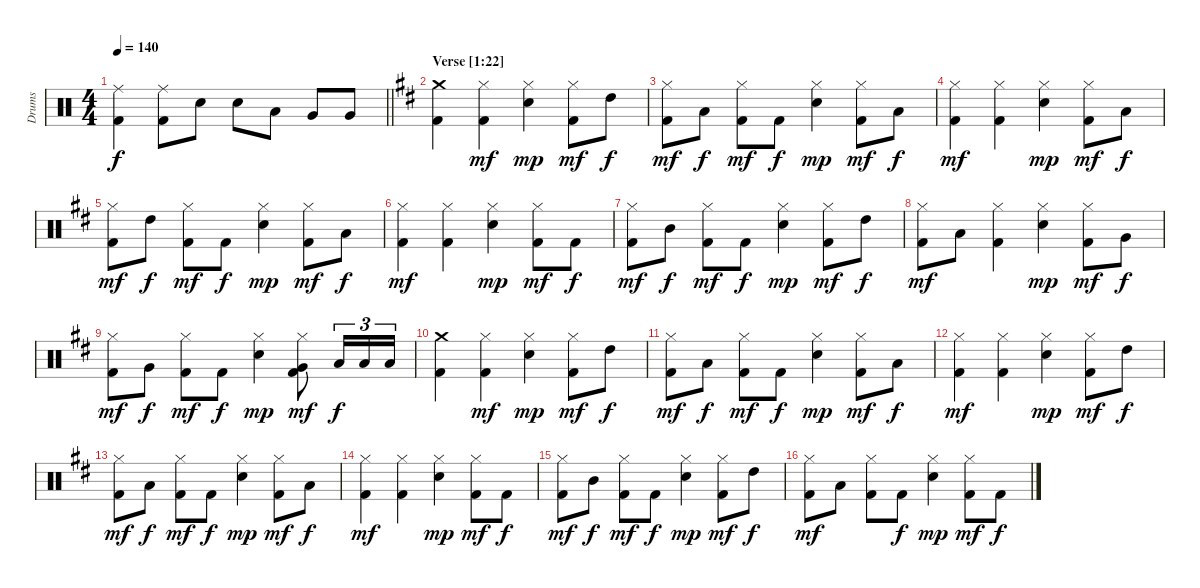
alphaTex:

\track ("Drums" "Drums") {instrument percussion}
\staff {score}
\articulation defaults
\ts (4 4)
\tempo 140
\clef neutral
\barLineRight lightlight
\ks aminor
("Ride (middle)" "Kick (hit) 2").4{dy f} ("Ride (middle)" "Kick (hit) 2").8 "Snare (hit) 2".8 "Snare (hit) 2".8 "Low Tom (hit)".8 "Very Low Tom (hit)".8 "Very Low Tom (hit)".8 |
\section ("" "Verse [1:22]")
\ks bminor
("Crash medium (hit)" "Kick (hit) 2").4 ("Hi-Hat (closed)" "Kick (hit) 2").4{dy mf} ("Hi-Hat (closed)" "Snare (hit) 2").4{dy mp} ("Hi-Hat (closed)" "Kick (hit) 2").8{dy mf} "High Tom (hit)".8{dy f} |
("Hi-Hat (closed)" "Kick (hit) 2").8{dy mf} "Low Tom (hit)".8{dy f} ("Hi-Hat (closed)" "Kick (hit) 2").8{dy mf} "Kick (hit) 2".8{dy f} ("Hi-Hat (closed)" "Snare (hit) 2").4{dy mp} ("Hi-Hat (closed)" "Kick (hit) 2").8{dy mf} "Low Floor Tom (hit)".8{dy f} |
("Hi-Hat (closed)" "Kick (hit) 2").4{dy mf} ("Hi-Hat (closed)" "Kick (hit) 2").4 ("Hi-Hat (closed)" "Snare (hit) 2").4{dy mp} ("Hi-Hat (closed)" "Kick (hit) 2").8{dy mf} "Low Tom (hit)".8{dy f} |
("Hi-Hat (closed)" "Kick (hit) 2").8{dy mf} "High Tom (hit)".8{dy f} ("Hi-Hat (closed)" "Kick (hit) 2").8{dy mf} "Kick (hit) 2".8{dy f} ("Hi-Hat (closed)" "Snare (hit) 2").4{dy mp} ("Hi-Hat (closed)" "Kick (hit) 2").8{dy mf} "Low Floor Tom (hit)".8{dy f} |
("Hi-Hat (closed)" "Kick (hit) 2").4{dy mf} ("Hi-Hat (closed)" "Kick (hit) 2").4 ("Hi-Hat (closed)" "Snare (hit) 2").4{dy mp} ("Hi-Hat (closed)" "Kick (hit) 2").8{dy mf} "Kick (hit) 2".8{dy f} |
("Hi-Hat (closed)" "Kick (hit) 2").8{dy mf} "Mid Tom (hit)".8{dy f} ("Hi-Hat (closed)" "Kick (hit) 2").8{dy mf} "Kick (hit) 2".8{dy f} ("Hi-Hat (closed)" "Snare (hit) 2").4{dy mp} ("Hi-Hat (closed)" "Kick (hit) 2").8{dy mf} "High Tom (hit)".8{dy f} |
("Hi-Hat (closed)" "Kick (hit) 2").8{dy mf} "Low Tom (hit)".8 ("Hi-Hat (closed)" "Kick (hit) 2").4 ("Hi-Hat (closed)" "Snare (hit) 2").4{dy mp} ("Hi-Hat (closed)" "Kick (hit) 2").8{dy mf} "Very Low Tom (hit)".8{dy f} |
("Hi-Hat (closed)" "Kick (hit) 2").8{dy mf} "Very Low Tom (hit)".8{dy f} ("Hi-Hat (closed)" "Kick (hit) 2").8{dy mf} "Kick (hit) 2".8{dy f} ("Hi-Hat (closed)" "Snare (hit) 2").4{dy mp} ("Hi-Hat (closed)" "Very Low Tom (hit)" "Kick (hit) 2").8{dy mf} "Low Floor Tom (hit)".16{tu (3 2) dy f} "Low Floor Tom (hit)".16{tu (3 2)} "Low Floor Tom (hit)".16{tu (3 2)} |
("Crash medium (hit)" "Kick (hit) 2").4 ("Hi-Hat (closed)" "Kick (hit) 2").4{dy mf} ("Hi-Hat (closed)" "Snare (hit) 2").4{dy mp} ("Hi-Hat (closed)" "Kick (hit) 2").8{dy mf} "High Tom (hit)".8{dy f} |
("Hi-Hat (closed)" "Kick (hit) 2").8{dy mf} "Low Tom (hit)".8{dy f} ("Hi-Hat (closed)" "Kick (hit) 2").8{dy mf} "Kick (hit) 2".8{dy f} ("Hi-Hat (closed)" "Snare (hit) 2").4{dy mp} ("Hi-Hat (closed)" "Kick (hit) 2").8{dy mf} "Low Floor Tom (hit)".8{dy f} |
("Hi-Hat (closed)" "Kick (hit) 2").4{dy mf} ("Hi-Hat (closed)" "Kick (hit) 2").4 ("Hi-Hat (closed)" "Snare (hit) 2").4{dy mp} ("Hi-Hat (closed)" "Kick (hit) 2").8{dy mf} "High Tom (hit)".8{dy f} |
("Hi-Hat (closed)" "Kick (hit) 2").8{dy mf} "Low Tom (hit)".8{dy f} ("Hi-Hat (closed)" "Kick (hit) 2").8{dy mf} "Kick (hit) 2".8{dy f} ("Hi-Hat (closed)" "Snare (hit) 2").4{dy mp} ("Hi-Hat (closed)" "Kick (hit) 2").8{dy mf} "Low Floor Tom (hit)".8{dy f} |
("Hi-Hat (closed)" "Kick (hit) 2").4{dy mf} ("Hi-Hat (closed)" "Kick (hit) 2").4 ("Hi-Hat (closed)" "Snare (hit) 2").4{dy mp} ("Hi-Hat (closed)" "Kick (hit) 2").8{dy mf} "Kick (hit) 2".8{dy f} |
("Hi-Hat (closed)" "Kick (hit) 2").8{dy mf} "Mid Tom (hit)".8{dy f} ("Hi-Hat (closed)" "Kick (hit) 2").8{dy mf} "Kick (hit) 2".8{dy f} ("Hi-Hat (closed)" "Snare (hit) 2").4{dy mp} ("Hi-Hat (closed)" "Kick (hit) 2").8{dy mf} "High Tom (hit)".8{dy f} |
("Hi-Hat (closed)" "Kick (hit) 2").8{dy mf} "Low Tom (hit)".8 ("Hi-Hat (closed)" "Kick (hit) 2").8 "Kick (hit) 2".8{dy f} ("Hi-Hat (closed)" "Snare (hit) 2").4{dy mp} ("Hi-Hat (closed)" "Kick (hit) 2").8{dy mf} "Kick (hit) 2".8{dy f}
